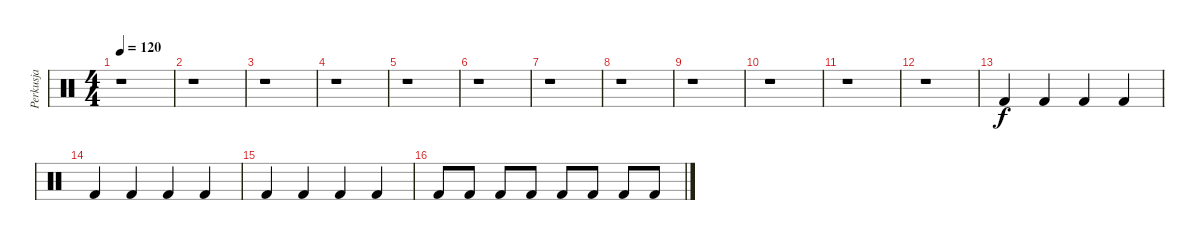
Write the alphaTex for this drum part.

\track ("Perkusja" "Perkusja") {instrument percussion}
\staff {score}
\articulation defaults
\ts (4 4)
\tempo 120
\clef neutral
\ks c
r.1{dy f} |
r.1 |
r.1 |
r.1 |
r.1 |
r.1 |
r.1 |
r.1 |
r.1 |
r.1 |
r.1 |
r.1 |
"Kick (hit) 2".4 "Kick (hit) 2".4 "Kick (hit) 2".4 "Kick (hit) 2".4 |
"Kick (hit) 2".4 "Kick (hit) 2".4 "Kick (hit) 2".4 "Kick (hit) 2".4 |
"Kick (hit) 2".4 "Kick (hit) 2".4 "Kick (hit) 2".4 "Kick (hit) 2".4 |
"Kick (hit) 2".8 "Kick (hit) 2".8 "Kick (hit) 2".8 "Kick (hit) 2".8 "Kick (hit) 2".8 "Kick (hit) 2".8 "Kick (hit) 2".8 "Kick (hit) 2".8
